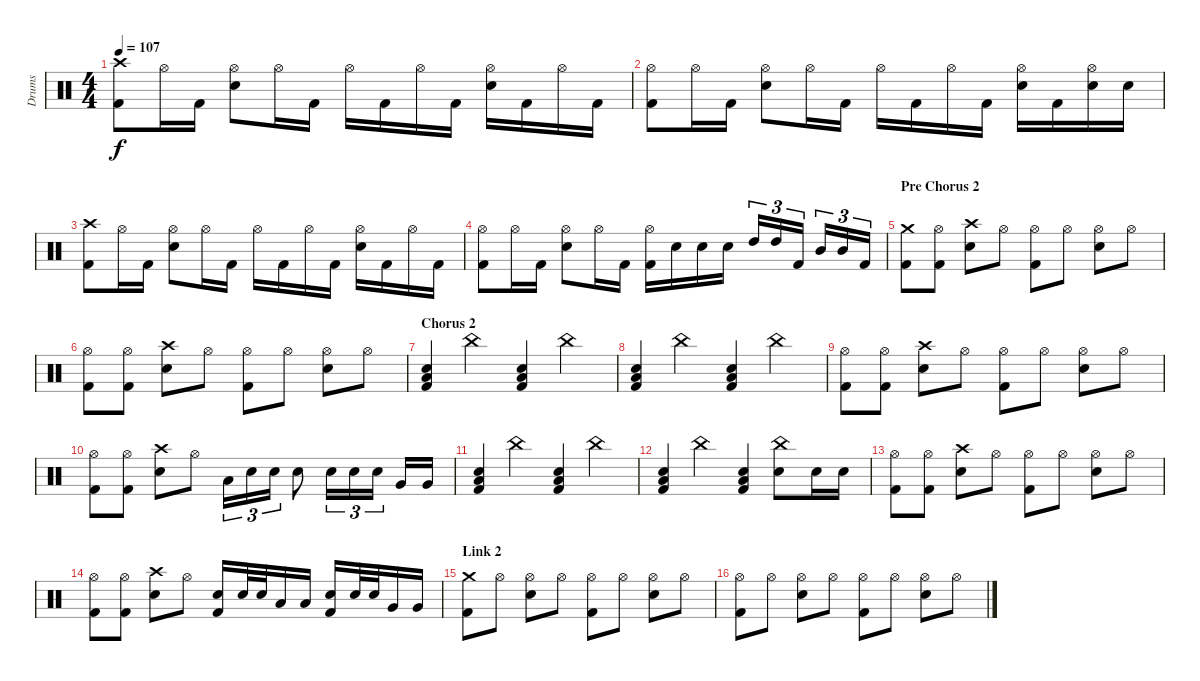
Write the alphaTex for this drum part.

\track ("Drums" "Drums") {instrument percussion}
\staff {score}
\articulation defaults
\ts (4 4)
\tempo 107
\clef neutral
\ks c
("Crash high (hit)" "Kick (hit) 2").8{dy f} "Hi-Hat (open)".16 "Kick (hit) 2".16 ("Hi-Hat (open)" "Electric Snare (hit)").8 "Hi-Hat (open)".16 "Kick (hit) 2".16 "Hi-Hat (open)".16 "Kick (hit) 2".16 "Hi-Hat (open)".16 "Kick (hit) 2".16 ("Hi-Hat (open)" "Electric Snare (hit)").16 "Kick (hit) 2".16 "Hi-Hat (open)".16 "Kick (hit) 2".16 |
("Hi-Hat (open)" "Kick (hit) 2").8 "Hi-Hat (open)".16 "Kick (hit) 2".16 ("Hi-Hat (open)" "Electric Snare (hit)").8 "Hi-Hat (open)".16 "Kick (hit) 2".16 "Hi-Hat (open)".16 "Kick (hit) 2".16 "Hi-Hat (open)".16 "Kick (hit) 2".16 ("Hi-Hat (open)" "Electric Snare (hit)").16 "Kick (hit) 2".16 ("Hi-Hat (open)" "Electric Snare (hit)").16 "Electric Snare (hit)".16 |
("Crash high (hit)" "Kick (hit) 2").8 "Hi-Hat (open)".16 "Kick (hit) 2".16 ("Hi-Hat (open)" "Electric Snare (hit)").8 "Hi-Hat (open)".16 "Kick (hit) 2".16 "Hi-Hat (open)".16 "Kick (hit) 2".16 "Hi-Hat (open)".16 "Kick (hit) 2".16 ("Hi-Hat (open)" "Electric Snare (hit)").16 "Kick (hit) 2".16 "Hi-Hat (open)".16 "Kick (hit) 2".16 |
("Hi-Hat (open)" "Kick (hit) 2").8 "Hi-Hat (open)".16 "Kick (hit) 2".16 ("Hi-Hat (open)" "Electric Snare (hit)").8 "Hi-Hat (open)".16 "Kick (hit) 2".16 ("Hi-Hat (open)" "Kick (hit) 2").16 "Electric Snare (hit)".16 "Electric Snare (hit)".16 "Electric Snare (hit)".16 "High Tom (hit)".16{tu (3 2)} "High Tom (hit)".16{tu (3 2)} "Kick (hit) 2".16{tu (3 2)} "Mid Tom (hit)".16{tu (3 2)} "Mid Tom (hit)".16{tu (3 2)} "Kick (hit) 2".16{tu (3 2)} |
\section ("" "Pre Chorus 2")
("Crash medium (hit)" "Kick (hit) 2").8 ("Hi-Hat (open)" "Kick (hit) 2").8 ("Crash high (hit)" "Electric Snare (hit)").8 "Hi-Hat (open)".8 ("Hi-Hat (open)" "Kick (hit) 2").8 "Hi-Hat (open)".8 ("Hi-Hat (open)" "Electric Snare (hit)").8 "Hi-Hat (open)".8 |
("Hi-Hat (open)" "Kick (hit) 2").8 ("Hi-Hat (open)" "Kick (hit) 2").8 ("Crash high (hit)" "Electric Snare (hit)").8 "Hi-Hat (open)".8 ("Hi-Hat (open)" "Kick (hit) 2").8 "Hi-Hat (open)".8 ("Hi-Hat (open)" "Electric Snare (hit)").8 "Hi-Hat (open)".8 |
\section ("" "Chorus 2")
("Electric Snare (hit)" "Low Floor Tom (hit)" "Kick (hit) 2").4 "China (hit)".4 ("Electric Snare (hit)" "Low Floor Tom (hit)" "Kick (hit) 2").4 "China (hit)".4 |
("Electric Snare (hit)" "Low Floor Tom (hit)" "Kick (hit) 2").4 "China (hit)".4 ("Electric Snare (hit)" "Low Floor Tom (hit)" "Kick (hit) 2").4 "China (hit)".4 |
("Hi-Hat (open)" "Kick (hit) 2").8 ("Hi-Hat (open)" "Kick (hit) 2").8 ("Crash high (hit)" "Electric Snare (hit)").8 "Hi-Hat (open)".8 ("Hi-Hat (open)" "Kick (hit) 2").8 "Hi-Hat (open)".8 ("Hi-Hat (open)" "Electric Snare (hit)").8 "Hi-Hat (open)".8 |
("Hi-Hat (open)" "Kick (hit) 2").8 ("Hi-Hat (open)" "Kick (hit) 2").8 ("Crash high (hit)" "Electric Snare (hit)").8 "Hi-Hat (open)".8 "Low Tom (hit)".16{tu (3 2)} "Electric Snare (hit)".16{tu (3 2)} "Electric Snare (hit)".16{tu (3 2)} "Electric Snare (hit)".8 "Electric Snare (hit)".16{tu (3 2)} "Electric Snare (hit)".16{tu (3 2)} "Electric Snare (hit)".16{tu (3 2)} "Very Low Tom (hit)".16 "Very Low Tom (hit)".16 |
("Electric Snare (hit)" "Low Floor Tom (hit)" "Kick (hit) 2").4 "China (hit)".4 ("Electric Snare (hit)" "Low Floor Tom (hit)" "Kick (hit) 2").4 "China (hit)".4 |
("Electric Snare (hit)" "Low Floor Tom (hit)" "Kick (hit) 2").4 "China (hit)".4 ("Electric Snare (hit)" "Low Floor Tom (hit)" "Kick (hit) 2").4 ("China (hit)" "Electric Snare (hit)").8 "Electric Snare (hit)".16 "Electric Snare (hit)".16 |
("Hi-Hat (open)" "Kick (hit) 2").8 ("Hi-Hat (open)" "Kick (hit) 2").8 ("Crash high (hit)" "Electric Snare (hit)").8 "Hi-Hat (open)".8 ("Hi-Hat (open)" "Kick (hit) 2").8 "Hi-Hat (open)".8 ("Hi-Hat (open)" "Electric Snare (hit)").8 "Hi-Hat (open)".8 |
("Hi-Hat (open)" "Kick (hit) 2").8 ("Hi-Hat (open)" "Kick (hit) 2").8 ("Crash high (hit)" "Electric Snare (hit)").8 "Hi-Hat (open)".8 ("Electric Snare (hit)" "Kick (hit) 2").16 "Electric Snare (hit)".32 "Electric Snare (hit)".32 "Low Tom (hit)".16 "Low Tom (hit)".16 ("Electric Snare (hit)" "Kick (hit) 2").16 "Electric Snare (hit)".32 "Electric Snare (hit)".32 "Very Low Tom (hit)".16 "Very Low Tom (hit)".16 |
\section ("" "Link 2")
("Crash medium (hit)" "Kick (hit) 2").8 "Hi-Hat (open)".8 ("Hi-Hat (open)" "Electric Snare (hit)").8 "Hi-Hat (open)".8 ("Hi-Hat (open)" "Kick (hit) 2").8 "Hi-Hat (open)".8 ("Hi-Hat (open)" "Electric Snare (hit)").8 "Hi-Hat (open)".8 |
("Hi-Hat (open)" "Kick (hit) 2").8 "Hi-Hat (open)".8 ("Hi-Hat (open)" "Electric Snare (hit)").8 "Hi-Hat (open)".8 ("Hi-Hat (open)" "Kick (hit) 2").8 "Hi-Hat (open)".8 ("Hi-Hat (open)" "Electric Snare (hit)").8 "Hi-Hat (open)".8
